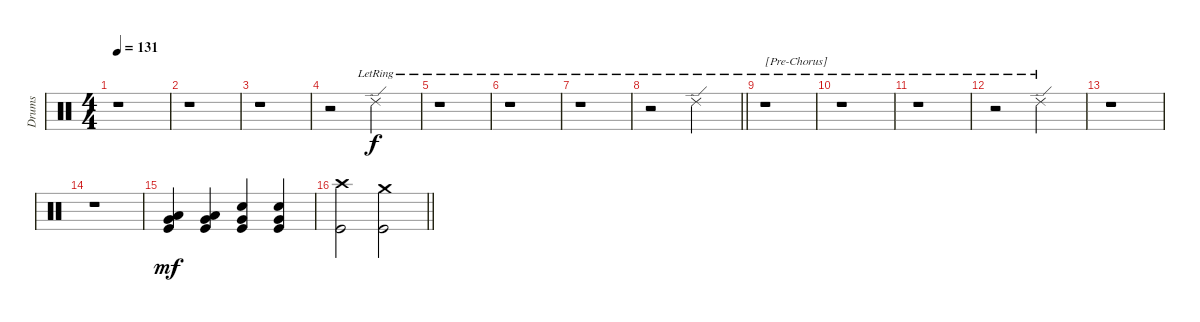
\track ("Drums" "Drums") {instrument percussion}
\staff {score}
\articulation defaults
\ts (4 4)
\tempo 131
\clef neutral
\ks c
r.1{dy f} |
r.1 |
r.1 |
r.2 "Ride (edge) 2"{lr}.2 |
r.1 |
r.1 |
r.1 |
\barLineRight lightlight
r.2 "Ride (edge) 2"{lr}.2 |
r.1{txt "[Pre-Chorus]"} |
r.1 |
r.1 |
r.2 "Ride (edge) 2"{lr}.2 |
r.1 |
r.1 |
("Very Low Tom (hit)" "Low Tom (hit)" "Kick (hit)").4{dy mf} ("Very Low Tom (hit)" "Low Tom (hit)" "Kick (hit)").4 ("Very Low Tom (hit)" "Snare (hit) 2" "Kick (hit)").4 ("Very Low Tom (hit)" "Snare (hit) 2" "Kick (hit)").4 |
\barLineRight lightlight
("Crash high (hit)" "Kick (hit)").2 ("Crash medium (hit)" "Kick (hit)").2
